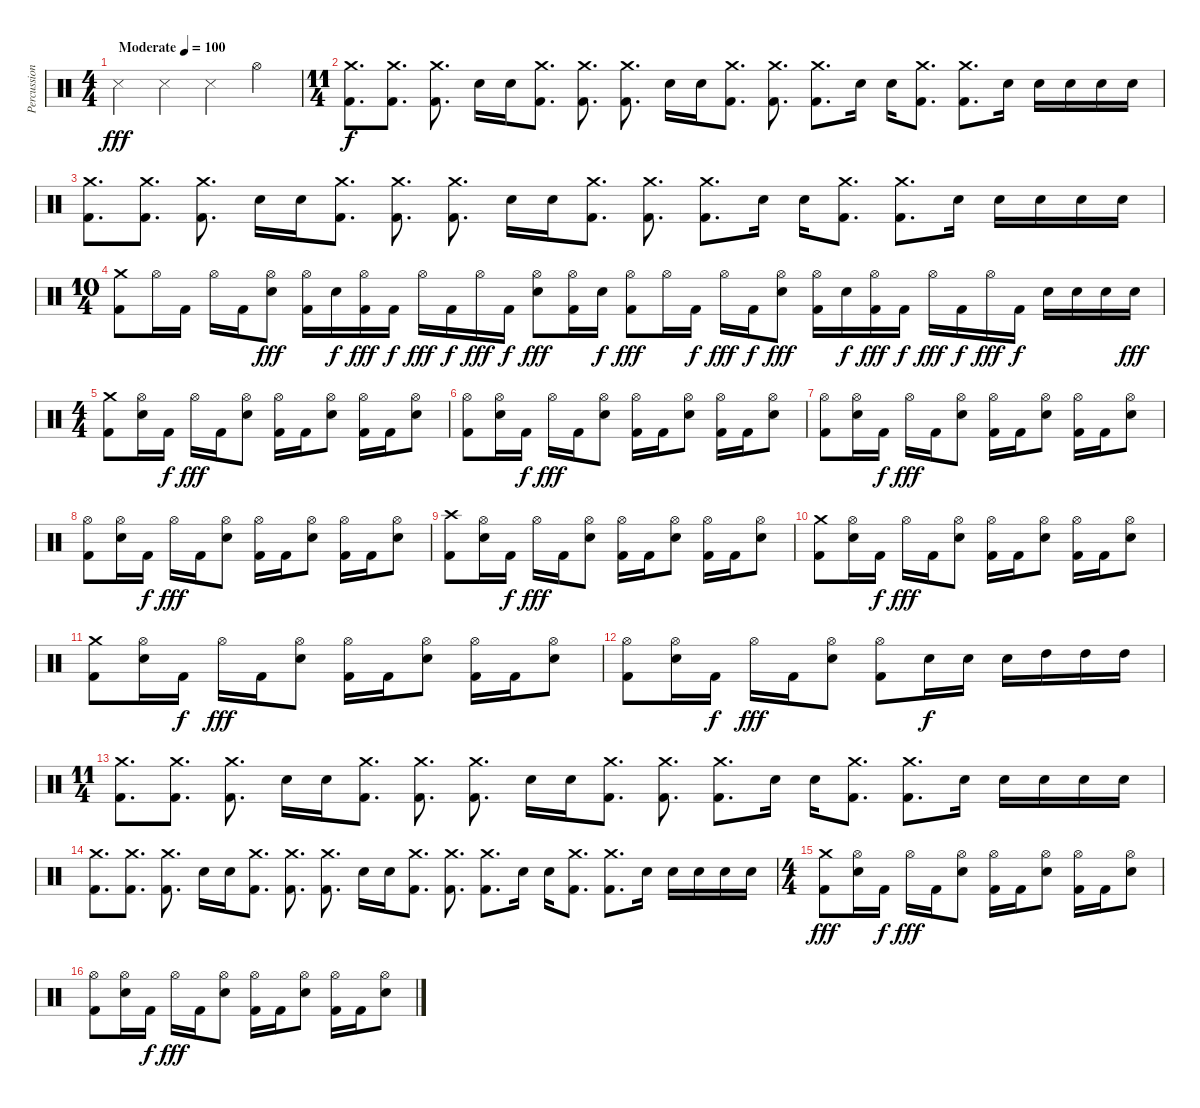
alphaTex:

\track ("Percussion" "Percussion") {instrument percussion}
\staff {score}
\articulation defaults
\ts (4 4)
\tempo (100 "Moderate")
\clef neutral
\ks c "Snare (side stick) 3".4{dy fff} "Snare (side stick) 3".4 "Snare (side stick) 3".4 "Hi-Hat (open)".4
|
\ts (11 4)
("Crash medium (hit)" "Kick (hit) 2").8{d dy f} ("Crash medium (hit)" "Kick (hit) 2").8{d} ("Crash medium (hit)" "Kick (hit) 2").8{d} "Electric Snare (hit)".16 "Electric Snare (hit)".16 ("Crash medium (hit)" "Kick (hit) 2").8{d} ("Crash medium (hit)" "Kick (hit) 2").8{d} ("Crash medium (hit)" "Kick (hit) 2").8{d} "Electric Snare (hit)".16 "Electric Snare (hit)".16 ("Crash medium (hit)" "Kick (hit) 2").8{d} ("Crash medium (hit)" "Kick (hit) 2").8{d} ("Crash medium (hit)" "Kick (hit) 2").8{d} "Electric Snare (hit)".16 "Electric Snare (hit)".16 ("Crash medium (hit)" "Kick (hit) 2").8{d} ("Crash medium (hit)" "Kick (hit) 2").8{d} "Electric Snare (hit)".16 "Electric Snare (hit)".16 "Electric Snare (hit)".16 "Electric Snare (hit)".16 "Electric Snare (hit)".16 |
("Crash medium (hit)" "Kick (hit) 2").8{d} ("Crash medium (hit)" "Kick (hit) 2").8{d} ("Crash medium (hit)" "Kick (hit) 2").8{d} "Electric Snare (hit)".16 "Electric Snare (hit)".16 ("Crash medium (hit)" "Kick (hit) 2").8{d} ("Crash medium (hit)" "Kick (hit) 2").8{d} ("Crash medium (hit)" "Kick (hit) 2").8{d} "Electric Snare (hit)".16 "Electric Snare (hit)".16 ("Crash medium (hit)" "Kick (hit) 2").8{d} ("Crash medium (hit)" "Kick (hit) 2").8{d} ("Crash medium (hit)" "Kick (hit) 2").8{d} "Electric Snare (hit)".16 "Electric Snare (hit)".16 ("Crash medium (hit)" "Kick (hit) 2").8{d} ("Crash medium (hit)" "Kick (hit) 2").8{d} "Electric Snare (hit)".16 "Electric Snare (hit)".16 "Electric Snare (hit)".16 "Electric Snare (hit)".16 "Electric Snare (hit)".16 |
\ts (10 4)
("Crash medium (hit)" "Kick (hit) 2").8 "Hi-Hat (open)".16 "Kick (hit) 2".16 "Hi-Hat (open)".16 "Kick (hit) 2".16 ("Hi-Hat (open)" "Electric Snare (hit)").8{dy fff} ("Hi-Hat (open)" "Kick (hit) 2").16 "Electric Snare (hit)".16{dy f} ("Hi-Hat (open)" "Kick (hit) 2").16{dy fff} "Kick (hit) 2".16{dy f} "Hi-Hat (open)".16{dy fff} "Kick (hit) 2".16{dy f} "Hi-Hat (open)".16{dy fff} "Kick (hit) 2".16{dy f} ("Hi-Hat (open)" "Electric Snare (hit)").8{dy fff} ("Hi-Hat (open)" "Kick (hit) 2").16 "Electric Snare (hit)".16{dy f} ("Hi-Hat (open)" "Kick (hit) 2").8{dy fff} "Hi-Hat (open)".16 "Kick (hit) 2".16{dy f} "Hi-Hat (open)".16{dy fff} "Kick (hit) 2".16{dy f} ("Hi-Hat (open)" "Electric Snare (hit)").8{dy fff} ("Hi-Hat (open)" "Kick (hit) 2").16 "Electric Snare (hit)".16{dy f} ("Hi-Hat (open)" "Kick (hit) 2").16{dy fff} "Kick (hit) 2".16{dy f} "Hi-Hat (open)".16{dy fff} "Kick (hit) 2".16{dy f} "Hi-Hat (open)".16{dy fff} "Kick (hit) 2".16{dy f} "Electric Snare (hit)".16 "Electric Snare (hit)".16 "Electric Snare (hit)".16 "Electric Snare (hit)".16{dy fff} |
\ts (4 4)
("Crash medium (hit)" "Kick (hit) 2").8 ("Hi-Hat (open)" "Electric Snare (hit)").16 "Kick (hit) 2".16{dy f} "Hi-Hat (open)".16{dy fff} "Kick (hit) 2".16 ("Hi-Hat (open)" "Electric Snare (hit)").8 ("Hi-Hat (open)" "Kick (hit) 2").16 "Kick (hit) 2".16 ("Hi-Hat (open)" "Electric Snare (hit)").8 ("Hi-Hat (open)" "Kick (hit) 2").16 "Kick (hit) 2".16 ("Hi-Hat (open)" "Electric Snare (hit)").8 |
("Hi-Hat (open)" "Kick (hit) 2").8 ("Hi-Hat (open)" "Electric Snare (hit)").16 "Kick (hit) 2".16{dy f} "Hi-Hat (open)".16{dy fff} "Kick (hit) 2".16 ("Hi-Hat (open)" "Electric Snare (hit)").8 ("Hi-Hat (open)" "Kick (hit) 2").16 "Kick (hit) 2".16 ("Hi-Hat (open)" "Electric Snare (hit)").8 ("Hi-Hat (open)" "Kick (hit) 2").16 "Kick (hit) 2".16 ("Hi-Hat (open)" "Electric Snare (hit)").8 |
("Hi-Hat (open)" "Kick (hit) 2").8 ("Hi-Hat (open)" "Electric Snare (hit)").16 "Kick (hit) 2".16{dy f} "Hi-Hat (open)".16{dy fff} "Kick (hit) 2".16 ("Hi-Hat (open)" "Electric Snare (hit)").8 ("Hi-Hat (open)" "Kick (hit) 2").16 "Kick (hit) 2".16 ("Hi-Hat (open)" "Electric Snare (hit)").8 ("Hi-Hat (open)" "Kick (hit) 2").16 "Kick (hit) 2".16 ("Hi-Hat (open)" "Electric Snare (hit)").8 |
("Hi-Hat (open)" "Kick (hit) 2").8 ("Hi-Hat (open)" "Electric Snare (hit)").16 "Kick (hit) 2".16{dy f} "Hi-Hat (open)".16{dy fff} "Kick (hit) 2".16 ("Hi-Hat (open)" "Electric Snare (hit)").8 ("Hi-Hat (open)" "Kick (hit) 2").16 "Kick (hit) 2".16 ("Hi-Hat (open)" "Electric Snare (hit)").8 ("Hi-Hat (open)" "Kick (hit) 2").16 "Kick (hit) 2".16 ("Hi-Hat (open)" "Electric Snare (hit)").8 |
("Crash high (hit)" "Kick (hit) 2").8 ("Hi-Hat (open)" "Electric Snare (hit)").16 "Kick (hit) 2".16{dy f} "Hi-Hat (open)".16{dy fff} "Kick (hit) 2".16 ("Hi-Hat (open)" "Electric Snare (hit)").8 ("Hi-Hat (open)" "Kick (hit) 2").16 "Kick (hit) 2".16 ("Hi-Hat (open)" "Electric Snare (hit)").8 ("Hi-Hat (open)" "Kick (hit) 2").16 "Kick (hit) 2".16 ("Hi-Hat (open)" "Electric Snare (hit)").8 |
("Crash medium (hit)" "Kick (hit) 2").8 ("Hi-Hat (open)" "Electric Snare (hit)").16 "Kick (hit) 2".16{dy f} "Hi-Hat (open)".16{dy fff} "Kick (hit) 2".16 ("Hi-Hat (open)" "Electric Snare (hit)").8 ("Hi-Hat (open)" "Kick (hit) 2").16 "Kick (hit) 2".16 ("Hi-Hat (open)" "Electric Snare (hit)").8 ("Hi-Hat (open)" "Kick (hit) 2").16 "Kick (hit) 2".16 ("Hi-Hat (open)" "Electric Snare (hit)").8 |
("Crash medium (hit)" "Kick (hit) 2").8 ("Hi-Hat (open)" "Electric Snare (hit)").16 "Kick (hit) 2".16{dy f} "Hi-Hat (open)".16{dy fff} "Kick (hit) 2".16 ("Hi-Hat (open)" "Electric Snare (hit)").8 ("Hi-Hat (open)" "Kick (hit) 2").16 "Kick (hit) 2".16 ("Hi-Hat (open)" "Electric Snare (hit)").8 ("Hi-Hat (open)" "Kick (hit) 2").16 "Kick (hit) 2".16 ("Hi-Hat (open)" "Electric Snare (hit)").8 |
("Hi-Hat (open)" "Kick (hit) 2").8 ("Hi-Hat (open)" "Electric Snare (hit)").16 "Kick (hit) 2".16{dy f} "Hi-Hat (open)".16{dy fff} "Kick (hit) 2".16 ("Hi-Hat (open)" "Electric Snare (hit)").8 ("Hi-Hat (open)" "Kick (hit) 2").8 "Electric Snare (hit)".16{dy f} "Electric Snare (hit)".16 "Electric Snare (hit)".16 "High Tom (hit)".16 "High Tom (hit)".16 "High Tom (hit)".16 |
\ts (11 4)
("Crash medium (hit)" "Kick (hit) 2").8{d} ("Crash medium (hit)" "Kick (hit) 2").8{d} ("Crash medium (hit)" "Kick (hit) 2").8{d} "Electric Snare (hit)".16 "Electric Snare (hit)".16 ("Crash medium (hit)" "Kick (hit) 2").8{d} ("Crash medium (hit)" "Kick (hit) 2").8{d} ("Crash medium (hit)" "Kick (hit) 2").8{d} "Electric Snare (hit)".16 "Electric Snare (hit)".16 ("Crash medium (hit)" "Kick (hit) 2").8{d} ("Crash medium (hit)" "Kick (hit) 2").8{d} ("Crash medium (hit)" "Kick (hit) 2").8{d} "Electric Snare (hit)".16 "Electric Snare (hit)".16 ("Crash medium (hit)" "Kick (hit) 2").8{d} ("Crash medium (hit)" "Kick (hit) 2").8{d} "Electric Snare (hit)".16 "Electric Snare (hit)".16 "Electric Snare (hit)".16 "Electric Snare (hit)".16 "Electric Snare (hit)".16 |
("Crash medium (hit)" "Kick (hit) 2").8{d} ("Crash medium (hit)" "Kick (hit) 2").8{d} ("Crash medium (hit)" "Kick (hit) 2").8{d} "Electric Snare (hit)".16 "Electric Snare (hit)".16 ("Crash medium (hit)" "Kick (hit) 2").8{d} ("Crash medium (hit)" "Kick (hit) 2").8{d} ("Crash medium (hit)" "Kick (hit) 2").8{d} "Electric Snare (hit)".16 "Electric Snare (hit)".16 ("Crash medium (hit)" "Kick (hit) 2").8{d} ("Crash medium (hit)" "Kick (hit) 2").8{d} ("Crash medium (hit)" "Kick (hit) 2").8{d} "Electric Snare (hit)".16 "Electric Snare (hit)".16 ("Crash medium (hit)" "Kick (hit) 2").8{d} ("Crash medium (hit)" "Kick (hit) 2").8{d} "Electric Snare (hit)".16 "Electric Snare (hit)".16 "Electric Snare (hit)".16 "Electric Snare (hit)".16 "Electric Snare (hit)".16 |
\ts (4 4)
("Crash medium (hit)" "Kick (hit) 2").8{dy fff} ("Hi-Hat (open)" "Electric Snare (hit)").16 "Kick (hit) 2".16{dy f} "Hi-Hat (open)".16{dy fff} "Kick (hit) 2".16 ("Hi-Hat (open)" "Electric Snare (hit)").8 ("Hi-Hat (open)" "Kick (hit) 2").16 "Kick (hit) 2".16 ("Hi-Hat (open)" "Electric Snare (hit)").8 ("Hi-Hat (open)" "Kick (hit) 2").16 "Kick (hit) 2".16 ("Hi-Hat (open)" "Electric Snare (hit)").8 |
("Hi-Hat (open)" "Kick (hit) 2").8 ("Hi-Hat (open)" "Electric Snare (hit)").16 "Kick (hit) 2".16{dy f} "Hi-Hat (open)".16{dy fff} "Kick (hit) 2".16 ("Hi-Hat (open)" "Electric Snare (hit)").8 ("Hi-Hat (open)" "Kick (hit) 2").16 "Kick (hit) 2".16 ("Hi-Hat (open)" "Electric Snare (hit)").8 ("Hi-Hat (open)" "Kick (hit) 2").16 "Kick (hit) 2".16 ("Hi-Hat (open)" "Electric Snare (hit)").8
